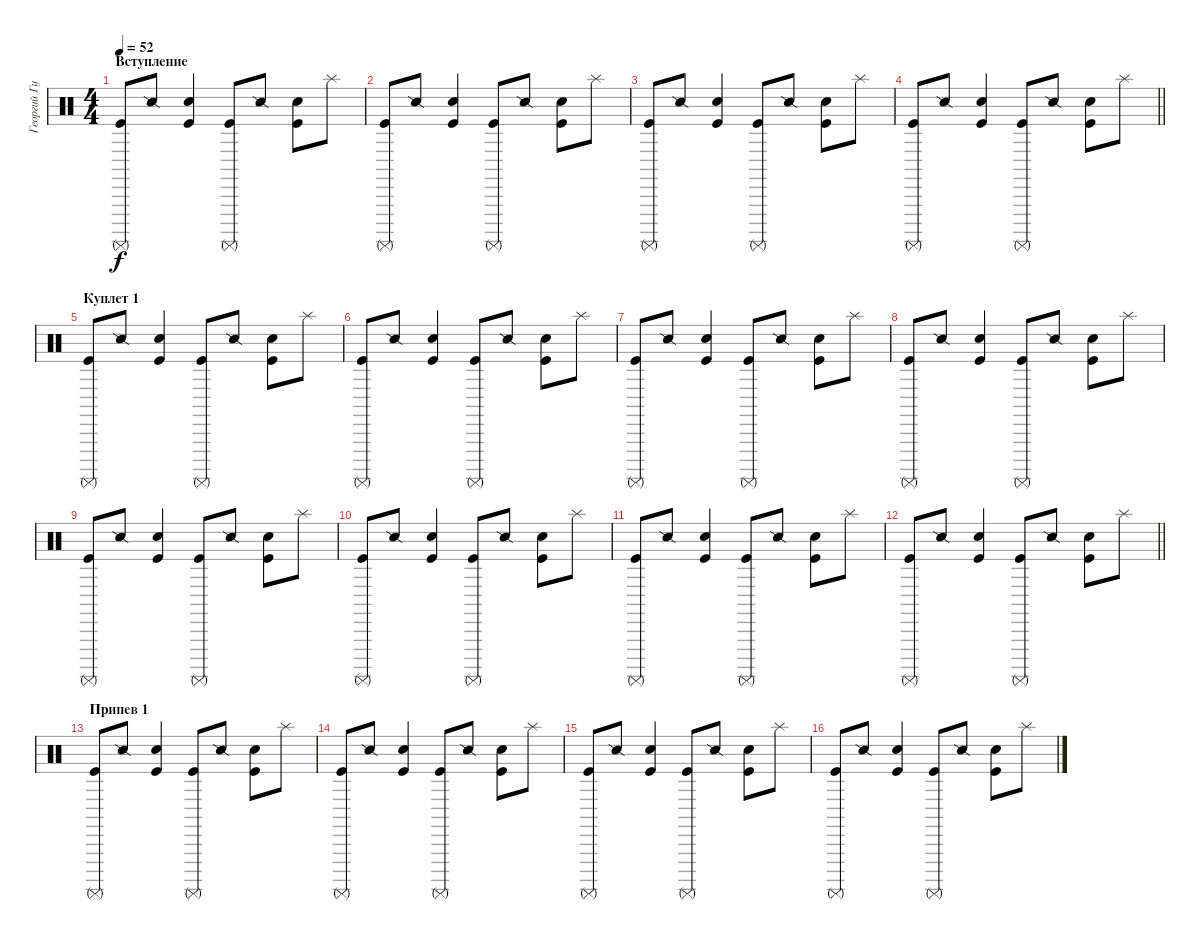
\track ("Георгий Гурьянов" "Георгий Гу") {instrument percussion}
\staff {score}
\articulation defaults
\ts (4 4)
\section ("" "Вступление")
\tempo 52
\clef neutral
\ks c
("Kick (hit)" "Surdo (mute)").8{dy f} "Snare (side stick) 2".8 ("Snare (hit) 2" "Kick (hit)").4 ("Kick (hit)" "Surdo (mute)").8 "Snare (side stick) 2".8 ("Snare (hit) 2" "Kick (hit)").8 "Splash (hit)".8 |
("Kick (hit)" "Surdo (mute)").8 "Snare (side stick) 2".8 ("Snare (hit) 2" "Kick (hit)").4 ("Kick (hit)" "Surdo (mute)").8 "Snare (side stick) 2".8 ("Snare (hit) 2" "Kick (hit)").8 "Splash (hit)".8 |
("Kick (hit)" "Surdo (mute)").8 "Snare (side stick) 2".8 ("Snare (hit) 2" "Kick (hit)").4 ("Kick (hit)" "Surdo (mute)").8 "Snare (side stick) 2".8 ("Snare (hit) 2" "Kick (hit)").8 "Splash (hit)".8 |
\barLineRight lightlight
("Kick (hit)" "Surdo (mute)").8 "Snare (side stick) 2".8 ("Snare (hit) 2" "Kick (hit)").4 ("Kick (hit)" "Surdo (mute)").8 "Snare (side stick) 2".8 ("Snare (hit) 2" "Kick (hit)").8 "Splash (hit)".8 |
\section ("" "Куплет 1")
("Kick (hit)" "Surdo (mute)").8 "Snare (side stick) 2".8 ("Snare (hit) 2" "Kick (hit)").4 ("Kick (hit)" "Surdo (mute)").8 "Snare (side stick) 2".8 ("Snare (hit) 2" "Kick (hit)").8 "Splash (hit)".8 |
("Kick (hit)" "Surdo (mute)").8 "Snare (side stick) 2".8 ("Snare (hit) 2" "Kick (hit)").4 ("Kick (hit)" "Surdo (mute)").8 "Snare (side stick) 2".8 ("Snare (hit) 2" "Kick (hit)").8 "Splash (hit)".8 |
("Kick (hit)" "Surdo (mute)").8 "Snare (side stick) 2".8 ("Snare (hit) 2" "Kick (hit)").4 ("Kick (hit)" "Surdo (mute)").8 "Snare (side stick) 2".8 ("Snare (hit) 2" "Kick (hit)").8 "Splash (hit)".8 |
("Kick (hit)" "Surdo (mute)").8 "Snare (side stick) 2".8 ("Snare (hit) 2" "Kick (hit)").4 ("Kick (hit)" "Surdo (mute)").8 "Snare (side stick) 2".8 ("Snare (hit) 2" "Kick (hit)").8 "Splash (hit)".8 |
("Kick (hit)" "Surdo (mute)").8 "Snare (side stick) 2".8 ("Snare (hit) 2" "Kick (hit)").4 ("Kick (hit)" "Surdo (mute)").8 "Snare (side stick) 2".8 ("Snare (hit) 2" "Kick (hit)").8 "Splash (hit)".8 |
("Kick (hit)" "Surdo (mute)").8 "Snare (side stick) 2".8 ("Snare (hit) 2" "Kick (hit)").4 ("Kick (hit)" "Surdo (mute)").8 "Snare (side stick) 2".8 ("Snare (hit) 2" "Kick (hit)").8 "Splash (hit)".8 |
("Kick (hit)" "Surdo (mute)").8 "Snare (side stick) 2".8 ("Snare (hit) 2" "Kick (hit)").4 ("Kick (hit)" "Surdo (mute)").8 "Snare (side stick) 2".8 ("Snare (hit) 2" "Kick (hit)").8 "Splash (hit)".8 |
\barLineRight lightlight
("Kick (hit)" "Surdo (mute)").8 "Snare (side stick) 2".8 ("Snare (hit) 2" "Kick (hit)").4 ("Kick (hit)" "Surdo (mute)").8 "Snare (side stick) 2".8 ("Snare (hit) 2" "Kick (hit)").8 "Splash (hit)".8 |
\section ("" "Припев 1")
("Kick (hit)" "Surdo (mute)").8 "Snare (side stick) 2".8 ("Snare (hit) 2" "Kick (hit)").4 ("Kick (hit)" "Surdo (mute)").8 "Snare (side stick) 2".8 ("Snare (hit) 2" "Kick (hit)").8 "Splash (hit)".8 |
("Kick (hit)" "Surdo (mute)").8 "Snare (side stick) 2".8 ("Snare (hit) 2" "Kick (hit)").4 ("Kick (hit)" "Surdo (mute)").8 "Snare (side stick) 2".8 ("Snare (hit) 2" "Kick (hit)").8 "Splash (hit)".8 |
("Kick (hit)" "Surdo (mute)").8 "Snare (side stick) 2".8 ("Snare (hit) 2" "Kick (hit)").4 ("Kick (hit)" "Surdo (mute)").8 "Snare (side stick) 2".8 ("Snare (hit) 2" "Kick (hit)").8 "Splash (hit)".8 |
("Kick (hit)" "Surdo (mute)").8 "Snare (side stick) 2".8 ("Snare (hit) 2" "Kick (hit)").4 ("Kick (hit)" "Surdo (mute)").8 "Snare (side stick) 2".8 ("Snare (hit) 2" "Kick (hit)").8 "Splash (hit)".8
